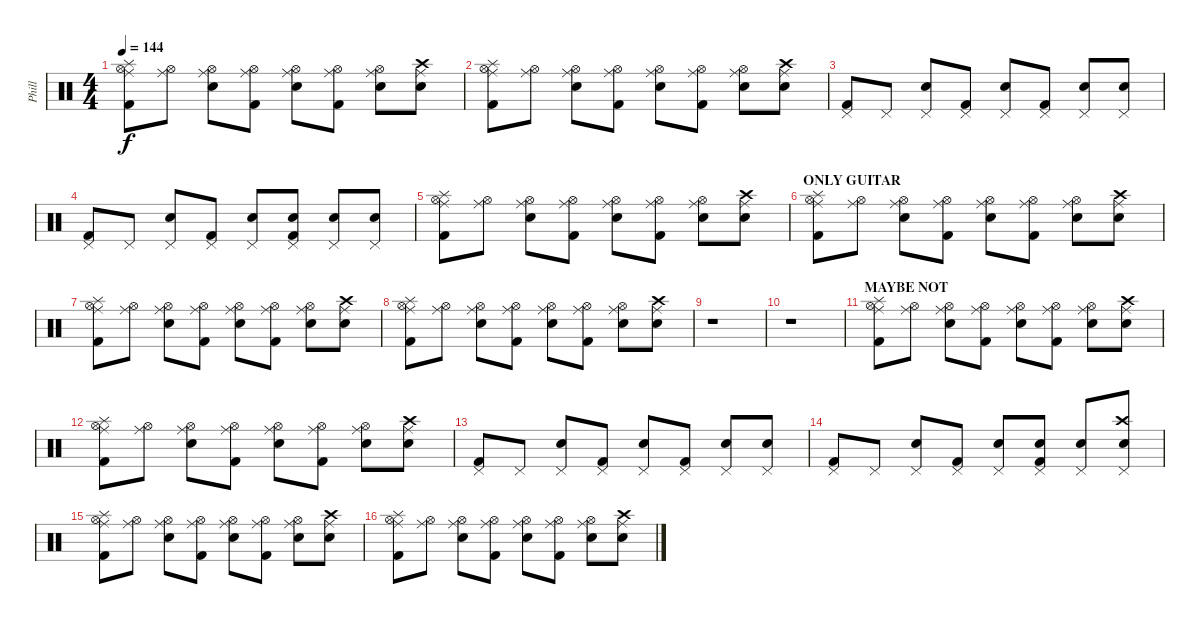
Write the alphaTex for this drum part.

\track ("Phill" "Phill") {instrument percussion}
\staff {score}
\articulation defaults
\ts (4 4)
\tempo 144
\clef neutral
\ks c
("Hi-Hat (open)" "Ride (middle)" "Splash (hit)" "Kick (hit) 2").8{dy f} ("Hi-Hat (open)" "Ride (middle)").8 ("Hi-Hat (open)" "Ride (middle)" "Snare (hit) 2").8 ("Hi-Hat (open)" "Ride (middle)" "Kick (hit) 2").8 ("Hi-Hat (open)" "Ride (middle)" "Snare (hit) 2").8 ("Hi-Hat (open)" "Ride (middle)" "Kick (hit) 2").8 ("Hi-Hat (open)" "Ride (middle)" "Snare (hit) 2").8 ("Crash high (hit)" "Ride (middle)" "Snare (hit) 2").8 |
("Hi-Hat (open)" "Ride (middle)" "Splash (hit)" "Kick (hit) 2").8 ("Hi-Hat (open)" "Ride (middle)").8 ("Hi-Hat (open)" "Ride (middle)" "Snare (hit) 2").8 ("Hi-Hat (open)" "Ride (middle)" "Kick (hit) 2").8 ("Hi-Hat (open)" "Ride (middle)" "Snare (hit) 2").8 ("Hi-Hat (open)" "Ride (middle)" "Kick (hit) 2").8 ("Hi-Hat (open)" "Ride (middle)" "Snare (hit) 2").8 ("Crash high (hit)" "Ride (middle)" "Snare (hit) 2").8 |
("Pedal Hi-Hat (hit)" "Kick (hit) 2").8 "Pedal Hi-Hat (hit)".8 ("Pedal Hi-Hat (hit)" "Snare (hit) 2").8 ("Pedal Hi-Hat (hit)" "Kick (hit) 2").8 ("Pedal Hi-Hat (hit)" "Snare (hit) 2").8 ("Pedal Hi-Hat (hit)" "Kick (hit) 2").8 ("Pedal Hi-Hat (hit)" "Snare (hit) 2").8 ("Pedal Hi-Hat (hit)" "Snare (hit) 2").8 |
("Pedal Hi-Hat (hit)" "Kick (hit) 2").8 "Pedal Hi-Hat (hit)".8 ("Pedal Hi-Hat (hit)" "Snare (hit) 2").8 ("Pedal Hi-Hat (hit)" "Kick (hit) 2").8 ("Pedal Hi-Hat (hit)" "Snare (hit) 2").8 ("Pedal Hi-Hat (hit)" "Snare (hit) 2" "Kick (hit) 2").8 ("Pedal Hi-Hat (hit)" "Snare (hit) 2").8 ("Pedal Hi-Hat (hit)" "Snare (hit) 2").8 |
("Hi-Hat (open)" "Ride (middle)" "Splash (hit)" "Kick (hit) 2").8 ("Hi-Hat (open)" "Ride (middle)").8 ("Hi-Hat (open)" "Ride (middle)" "Snare (hit) 2").8 ("Hi-Hat (open)" "Ride (middle)" "Kick (hit) 2").8 ("Hi-Hat (open)" "Ride (middle)" "Snare (hit) 2").8 ("Hi-Hat (open)" "Ride (middle)" "Kick (hit) 2").8 ("Hi-Hat (open)" "Ride (middle)" "Snare (hit) 2").8 ("Crash high (hit)" "Ride (middle)" "Snare (hit) 2").8 |
\section ("" "ONLY GUITAR")
("Hi-Hat (open)" "Ride (middle)" "Splash (hit)" "Kick (hit) 2").8 ("Hi-Hat (open)" "Ride (middle)").8 ("Hi-Hat (open)" "Ride (middle)" "Snare (hit) 2").8 ("Hi-Hat (open)" "Ride (middle)" "Kick (hit) 2").8 ("Hi-Hat (open)" "Ride (middle)" "Snare (hit) 2").8 ("Hi-Hat (open)" "Ride (middle)" "Kick (hit) 2").8 ("Hi-Hat (open)" "Ride (middle)" "Snare (hit) 2").8 ("Crash high (hit)" "Ride (middle)" "Snare (hit) 2").8 |
("Hi-Hat (open)" "Ride (middle)" "Splash (hit)" "Kick (hit) 2").8 ("Hi-Hat (open)" "Ride (middle)").8 ("Hi-Hat (open)" "Ride (middle)" "Snare (hit) 2").8 ("Hi-Hat (open)" "Ride (middle)" "Kick (hit) 2").8 ("Hi-Hat (open)" "Ride (middle)" "Snare (hit) 2").8 ("Hi-Hat (open)" "Ride (middle)" "Kick (hit) 2").8 ("Hi-Hat (open)" "Ride (middle)" "Snare (hit) 2").8 ("Crash high (hit)" "Ride (middle)" "Snare (hit) 2").8 |
("Hi-Hat (open)" "Ride (middle)" "Splash (hit)" "Kick (hit) 2").8 ("Hi-Hat (open)" "Ride (middle)").8 ("Hi-Hat (open)" "Ride (middle)" "Snare (hit) 2").8 ("Hi-Hat (open)" "Ride (middle)" "Kick (hit) 2").8 ("Hi-Hat (open)" "Ride (middle)" "Snare (hit) 2").8 ("Hi-Hat (open)" "Ride (middle)" "Kick (hit) 2").8 ("Hi-Hat (open)" "Ride (middle)" "Snare (hit) 2").8 ("Crash high (hit)" "Ride (middle)" "Snare (hit) 2").8 |
r.1 |
r.1 |
\section ("" "MAYBE NOT")
("Hi-Hat (open)" "Ride (middle)" "Splash (hit)" "Kick (hit) 2").8 ("Hi-Hat (open)" "Ride (middle)").8 ("Hi-Hat (open)" "Ride (middle)" "Snare (hit) 2").8 ("Hi-Hat (open)" "Ride (middle)" "Kick (hit) 2").8 ("Hi-Hat (open)" "Ride (middle)" "Snare (hit) 2").8 ("Hi-Hat (open)" "Ride (middle)" "Kick (hit) 2").8 ("Hi-Hat (open)" "Ride (middle)" "Snare (hit) 2").8 ("Crash high (hit)" "Ride (middle)" "Snare (hit) 2").8 |
("Hi-Hat (open)" "Ride (middle)" "Splash (hit)" "Kick (hit) 2").8 ("Hi-Hat (open)" "Ride (middle)").8 ("Hi-Hat (open)" "Ride (middle)" "Snare (hit) 2").8 ("Hi-Hat (open)" "Ride (middle)" "Kick (hit) 2").8 ("Hi-Hat (open)" "Ride (middle)" "Snare (hit) 2").8 ("Hi-Hat (open)" "Ride (middle)" "Kick (hit) 2").8 ("Hi-Hat (open)" "Ride (middle)" "Snare (hit) 2").8 ("Crash high (hit)" "Ride (middle)" "Snare (hit) 2").8 |
("Pedal Hi-Hat (hit)" "Kick (hit) 2").8 "Pedal Hi-Hat (hit)".8 ("Pedal Hi-Hat (hit)" "Snare (hit) 2").8 ("Pedal Hi-Hat (hit)" "Kick (hit) 2").8 ("Pedal Hi-Hat (hit)" "Snare (hit) 2").8 ("Pedal Hi-Hat (hit)" "Kick (hit) 2").8 ("Pedal Hi-Hat (hit)" "Snare (hit) 2").8 ("Pedal Hi-Hat (hit)" "Snare (hit) 2").8 |
("Pedal Hi-Hat (hit)" "Kick (hit) 2").8 "Pedal Hi-Hat (hit)".8 ("Pedal Hi-Hat (hit)" "Snare (hit) 2").8 ("Pedal Hi-Hat (hit)" "Kick (hit) 2").8 ("Pedal Hi-Hat (hit)" "Snare (hit) 2").8 ("Pedal Hi-Hat (hit)" "Snare (hit) 2" "Kick (hit) 2").8 ("Pedal Hi-Hat (hit)" "Snare (hit) 2").8 ("Crash high (hit)" "Pedal Hi-Hat (hit)" "Snare (hit) 2").8 |
("Hi-Hat (open)" "Ride (middle)" "Splash (hit)" "Kick (hit) 2").8 ("Hi-Hat (open)" "Ride (middle)").8 ("Hi-Hat (open)" "Ride (middle)" "Snare (hit) 2").8 ("Hi-Hat (open)" "Ride (middle)" "Kick (hit) 2").8 ("Hi-Hat (open)" "Ride (middle)" "Snare (hit) 2").8 ("Hi-Hat (open)" "Ride (middle)" "Kick (hit) 2").8 ("Hi-Hat (open)" "Ride (middle)" "Snare (hit) 2").8 ("Crash high (hit)" "Ride (middle)" "Snare (hit) 2").8 |
("Hi-Hat (open)" "Ride (middle)" "Splash (hit)" "Kick (hit) 2").8 ("Hi-Hat (open)" "Ride (middle)").8 ("Hi-Hat (open)" "Ride (middle)" "Snare (hit) 2").8 ("Hi-Hat (open)" "Ride (middle)" "Kick (hit) 2").8 ("Hi-Hat (open)" "Ride (middle)" "Snare (hit) 2").8 ("Hi-Hat (open)" "Ride (middle)" "Kick (hit) 2").8 ("Hi-Hat (open)" "Ride (middle)" "Snare (hit) 2").8 ("Crash high (hit)" "Ride (middle)" "Snare (hit) 2").8
